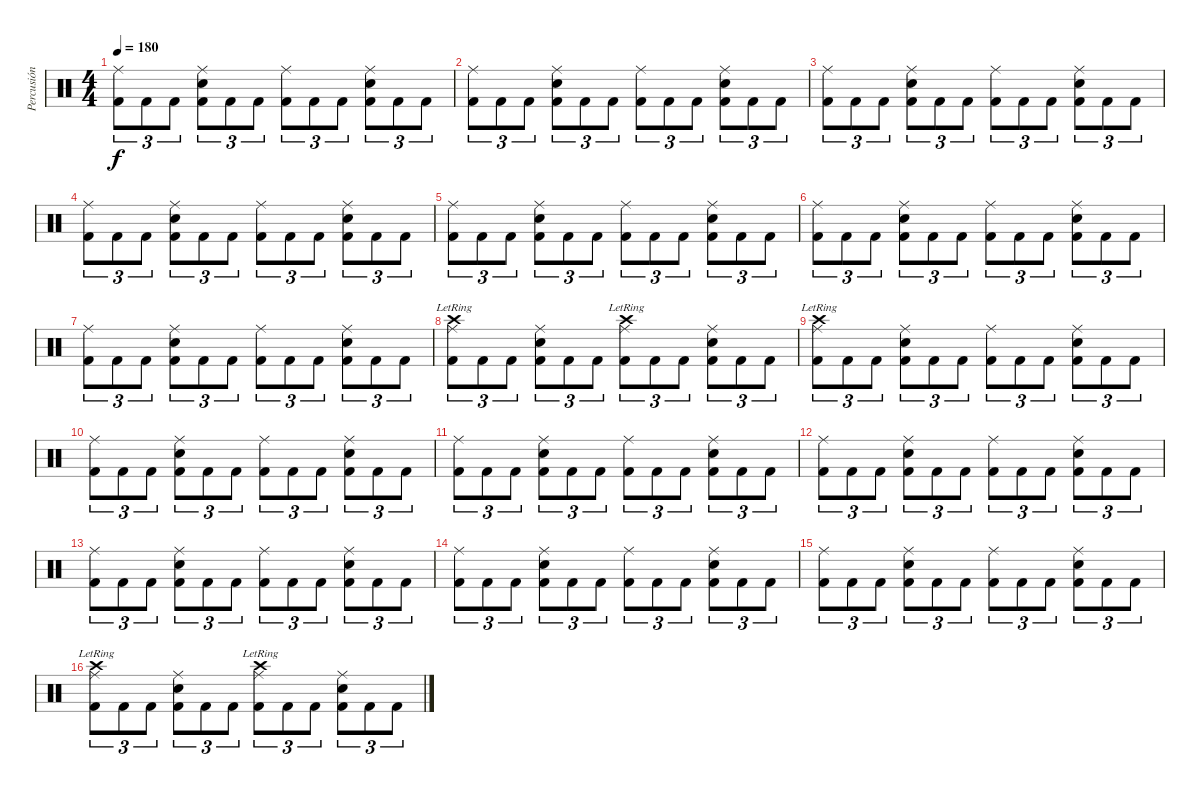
\track ("Percusión" "Percusión") {instrument percussion}
\staff {score}
\articulation defaults
\ts (4 4)
\tempo 180
\clef neutral
\ks c
("Ride (middle)" "Kick (hit) 2").8{tu (3 2) dy f} "Kick (hit) 2".8{tu (3 2)} "Kick (hit) 2".8{tu (3 2)} ("Ride (middle)" "Snare (hit) 2" "Kick (hit) 2").8{tu (3 2)} "Kick (hit) 2".8{tu (3 2)} "Kick (hit) 2".8{tu (3 2)} ("Ride (middle)" "Kick (hit) 2").8{tu (3 2)} "Kick (hit) 2".8{tu (3 2)} "Kick (hit) 2".8{tu (3 2)} ("Ride (middle)" "Snare (hit) 2" "Kick (hit) 2").8{tu (3 2)} "Kick (hit) 2".8{tu (3 2)} "Kick (hit) 2".8{tu (3 2)} |
("Ride (middle)" "Kick (hit) 2").8{tu (3 2)} "Kick (hit) 2".8{tu (3 2)} "Kick (hit) 2".8{tu (3 2)} ("Ride (middle)" "Snare (hit) 2" "Kick (hit) 2").8{tu (3 2)} "Kick (hit) 2".8{tu (3 2)} "Kick (hit) 2".8{tu (3 2)} ("Ride (middle)" "Kick (hit) 2").8{tu (3 2)} "Kick (hit) 2".8{tu (3 2)} "Kick (hit) 2".8{tu (3 2)} ("Ride (middle)" "Snare (hit) 2" "Kick (hit) 2").8{tu (3 2)} "Kick (hit) 2".8{tu (3 2)} "Kick (hit) 2".8{tu (3 2)} |
("Ride (middle)" "Kick (hit) 2").8{tu (3 2)} "Kick (hit) 2".8{tu (3 2)} "Kick (hit) 2".8{tu (3 2)} ("Ride (middle)" "Snare (hit) 2" "Kick (hit) 2").8{tu (3 2)} "Kick (hit) 2".8{tu (3 2)} "Kick (hit) 2".8{tu (3 2)} ("Ride (middle)" "Kick (hit) 2").8{tu (3 2)} "Kick (hit) 2".8{tu (3 2)} "Kick (hit) 2".8{tu (3 2)} ("Ride (middle)" "Snare (hit) 2" "Kick (hit) 2").8{tu (3 2)} "Kick (hit) 2".8{tu (3 2)} "Kick (hit) 2".8{tu (3 2)} |
("Ride (middle)" "Kick (hit) 2").8{tu (3 2)} "Kick (hit) 2".8{tu (3 2)} "Kick (hit) 2".8{tu (3 2)} ("Ride (middle)" "Snare (hit) 2" "Kick (hit) 2").8{tu (3 2)} "Kick (hit) 2".8{tu (3 2)} "Kick (hit) 2".8{tu (3 2)} ("Ride (middle)" "Kick (hit) 2").8{tu (3 2)} "Kick (hit) 2".8{tu (3 2)} "Kick (hit) 2".8{tu (3 2)} ("Ride (middle)" "Snare (hit) 2" "Kick (hit) 2").8{tu (3 2)} "Kick (hit) 2".8{tu (3 2)} "Kick (hit) 2".8{tu (3 2)} |
("Ride (middle)" "Kick (hit) 2").8{tu (3 2)} "Kick (hit) 2".8{tu (3 2)} "Kick (hit) 2".8{tu (3 2)} ("Ride (middle)" "Snare (hit) 2" "Kick (hit) 2").8{tu (3 2)} "Kick (hit) 2".8{tu (3 2)} "Kick (hit) 2".8{tu (3 2)} ("Ride (middle)" "Kick (hit) 2").8{tu (3 2)} "Kick (hit) 2".8{tu (3 2)} "Kick (hit) 2".8{tu (3 2)} ("Ride (middle)" "Snare (hit) 2" "Kick (hit) 2").8{tu (3 2)} "Kick (hit) 2".8{tu (3 2)} "Kick (hit) 2".8{tu (3 2)} |
("Ride (middle)" "Kick (hit) 2").8{tu (3 2)} "Kick (hit) 2".8{tu (3 2)} "Kick (hit) 2".8{tu (3 2)} ("Ride (middle)" "Snare (hit) 2" "Kick (hit) 2").8{tu (3 2)} "Kick (hit) 2".8{tu (3 2)} "Kick (hit) 2".8{tu (3 2)} ("Ride (middle)" "Kick (hit) 2").8{tu (3 2)} "Kick (hit) 2".8{tu (3 2)} "Kick (hit) 2".8{tu (3 2)} ("Ride (middle)" "Snare (hit) 2" "Kick (hit) 2").8{tu (3 2)} "Kick (hit) 2".8{tu (3 2)} "Kick (hit) 2".8{tu (3 2)} |
("Ride (middle)" "Kick (hit) 2").8{tu (3 2)} "Kick (hit) 2".8{tu (3 2)} "Kick (hit) 2".8{tu (3 2)} ("Ride (middle)" "Snare (hit) 2" "Kick (hit) 2").8{tu (3 2)} "Kick (hit) 2".8{tu (3 2)} "Kick (hit) 2".8{tu (3 2)} ("Ride (middle)" "Kick (hit) 2").8{tu (3 2)} "Kick (hit) 2".8{tu (3 2)} "Kick (hit) 2".8{tu (3 2)} ("Ride (middle)" "Snare (hit) 2" "Kick (hit) 2").8{tu (3 2)} "Kick (hit) 2".8{tu (3 2)} "Kick (hit) 2".8{tu (3 2)} |
("Crash high (hit)"{lr} "Ride (middle)" "Kick (hit) 2").8{tu (3 2)} "Kick (hit) 2".8{tu (3 2)} "Kick (hit) 2".8{tu (3 2)} ("Ride (middle)" "Snare (hit) 2" "Kick (hit) 2").8{tu (3 2)} "Kick (hit) 2".8{tu (3 2)} "Kick (hit) 2".8{tu (3 2)} ("Crash high (hit)"{lr} "Ride (middle)" "Kick (hit) 2").8{tu (3 2)} "Kick (hit) 2".8{tu (3 2)} "Kick (hit) 2".8{tu (3 2)} ("Ride (middle)" "Snare (hit) 2" "Kick (hit) 2").8{tu (3 2)} "Kick (hit) 2".8{tu (3 2)} "Kick (hit) 2".8{tu (3 2)} |
("Crash high (hit)"{lr} "Ride (middle)" "Kick (hit) 2").8{tu (3 2)} "Kick (hit) 2".8{tu (3 2)} "Kick (hit) 2".8{tu (3 2)} ("Ride (middle)" "Snare (hit) 2" "Kick (hit) 2").8{tu (3 2)} "Kick (hit) 2".8{tu (3 2)} "Kick (hit) 2".8{tu (3 2)} ("Ride (middle)" "Kick (hit) 2").8{tu (3 2)} "Kick (hit) 2".8{tu (3 2)} "Kick (hit) 2".8{tu (3 2)} ("Ride (middle)" "Snare (hit) 2" "Kick (hit) 2").8{tu (3 2)} "Kick (hit) 2".8{tu (3 2)} "Kick (hit) 2".8{tu (3 2)} |
("Ride (middle)" "Kick (hit) 2").8{tu (3 2)} "Kick (hit) 2".8{tu (3 2)} "Kick (hit) 2".8{tu (3 2)} ("Ride (middle)" "Snare (hit) 2" "Kick (hit) 2").8{tu (3 2)} "Kick (hit) 2".8{tu (3 2)} "Kick (hit) 2".8{tu (3 2)} ("Ride (middle)" "Kick (hit) 2").8{tu (3 2)} "Kick (hit) 2".8{tu (3 2)} "Kick (hit) 2".8{tu (3 2)} ("Ride (middle)" "Snare (hit) 2" "Kick (hit) 2").8{tu (3 2)} "Kick (hit) 2".8{tu (3 2)} "Kick (hit) 2".8{tu (3 2)} |
("Ride (middle)" "Kick (hit) 2").8{tu (3 2)} "Kick (hit) 2".8{tu (3 2)} "Kick (hit) 2".8{tu (3 2)} ("Ride (middle)" "Snare (hit) 2" "Kick (hit) 2").8{tu (3 2)} "Kick (hit) 2".8{tu (3 2)} "Kick (hit) 2".8{tu (3 2)} ("Ride (middle)" "Kick (hit) 2").8{tu (3 2)} "Kick (hit) 2".8{tu (3 2)} "Kick (hit) 2".8{tu (3 2)} ("Ride (middle)" "Snare (hit) 2" "Kick (hit) 2").8{tu (3 2)} "Kick (hit) 2".8{tu (3 2)} "Kick (hit) 2".8{tu (3 2)} |
("Ride (middle)" "Kick (hit) 2").8{tu (3 2)} "Kick (hit) 2".8{tu (3 2)} "Kick (hit) 2".8{tu (3 2)} ("Ride (middle)" "Snare (hit) 2" "Kick (hit) 2").8{tu (3 2)} "Kick (hit) 2".8{tu (3 2)} "Kick (hit) 2".8{tu (3 2)} ("Ride (middle)" "Kick (hit) 2").8{tu (3 2)} "Kick (hit) 2".8{tu (3 2)} "Kick (hit) 2".8{tu (3 2)} ("Ride (middle)" "Snare (hit) 2" "Kick (hit) 2").8{tu (3 2)} "Kick (hit) 2".8{tu (3 2)} "Kick (hit) 2".8{tu (3 2)} |
("Ride (middle)" "Kick (hit) 2").8{tu (3 2)} "Kick (hit) 2".8{tu (3 2)} "Kick (hit) 2".8{tu (3 2)} ("Ride (middle)" "Snare (hit) 2" "Kick (hit) 2").8{tu (3 2)} "Kick (hit) 2".8{tu (3 2)} "Kick (hit) 2".8{tu (3 2)} ("Ride (middle)" "Kick (hit) 2").8{tu (3 2)} "Kick (hit) 2".8{tu (3 2)} "Kick (hit) 2".8{tu (3 2)} ("Ride (middle)" "Snare (hit) 2" "Kick (hit) 2").8{tu (3 2)} "Kick (hit) 2".8{tu (3 2)} "Kick (hit) 2".8{tu (3 2)} |
("Ride (middle)" "Kick (hit) 2").8{tu (3 2)} "Kick (hit) 2".8{tu (3 2)} "Kick (hit) 2".8{tu (3 2)} ("Ride (middle)" "Snare (hit) 2" "Kick (hit) 2").8{tu (3 2)} "Kick (hit) 2".8{tu (3 2)} "Kick (hit) 2".8{tu (3 2)} ("Ride (middle)" "Kick (hit) 2").8{tu (3 2)} "Kick (hit) 2".8{tu (3 2)} "Kick (hit) 2".8{tu (3 2)} ("Ride (middle)" "Snare (hit) 2" "Kick (hit) 2").8{tu (3 2)} "Kick (hit) 2".8{tu (3 2)} "Kick (hit) 2".8{tu (3 2)} |
("Ride (middle)" "Kick (hit) 2").8{tu (3 2)} "Kick (hit) 2".8{tu (3 2)} "Kick (hit) 2".8{tu (3 2)} ("Ride (middle)" "Snare (hit) 2" "Kick (hit) 2").8{tu (3 2)} "Kick (hit) 2".8{tu (3 2)} "Kick (hit) 2".8{tu (3 2)} ("Ride (middle)" "Kick (hit) 2").8{tu (3 2)} "Kick (hit) 2".8{tu (3 2)} "Kick (hit) 2".8{tu (3 2)} ("Ride (middle)" "Snare (hit) 2" "Kick (hit) 2").8{tu (3 2)} "Kick (hit) 2".8{tu (3 2)} "Kick (hit) 2".8{tu (3 2)} |
("Crash high (hit)"{lr} "Ride (middle)" "Kick (hit) 2").8{tu (3 2)} "Kick (hit) 2".8{tu (3 2)} "Kick (hit) 2".8{tu (3 2)} ("Ride (middle)" "Snare (hit) 2" "Kick (hit) 2").8{tu (3 2)} "Kick (hit) 2".8{tu (3 2)} "Kick (hit) 2".8{tu (3 2)} ("Crash high (hit)"{lr} "Ride (middle)" "Kick (hit) 2").8{tu (3 2)} "Kick (hit) 2".8{tu (3 2)} "Kick (hit) 2".8{tu (3 2)} ("Ride (middle)" "Snare (hit) 2" "Kick (hit) 2").8{tu (3 2)} "Kick (hit) 2".8{tu (3 2)} "Kick (hit) 2".8{tu (3 2)}
